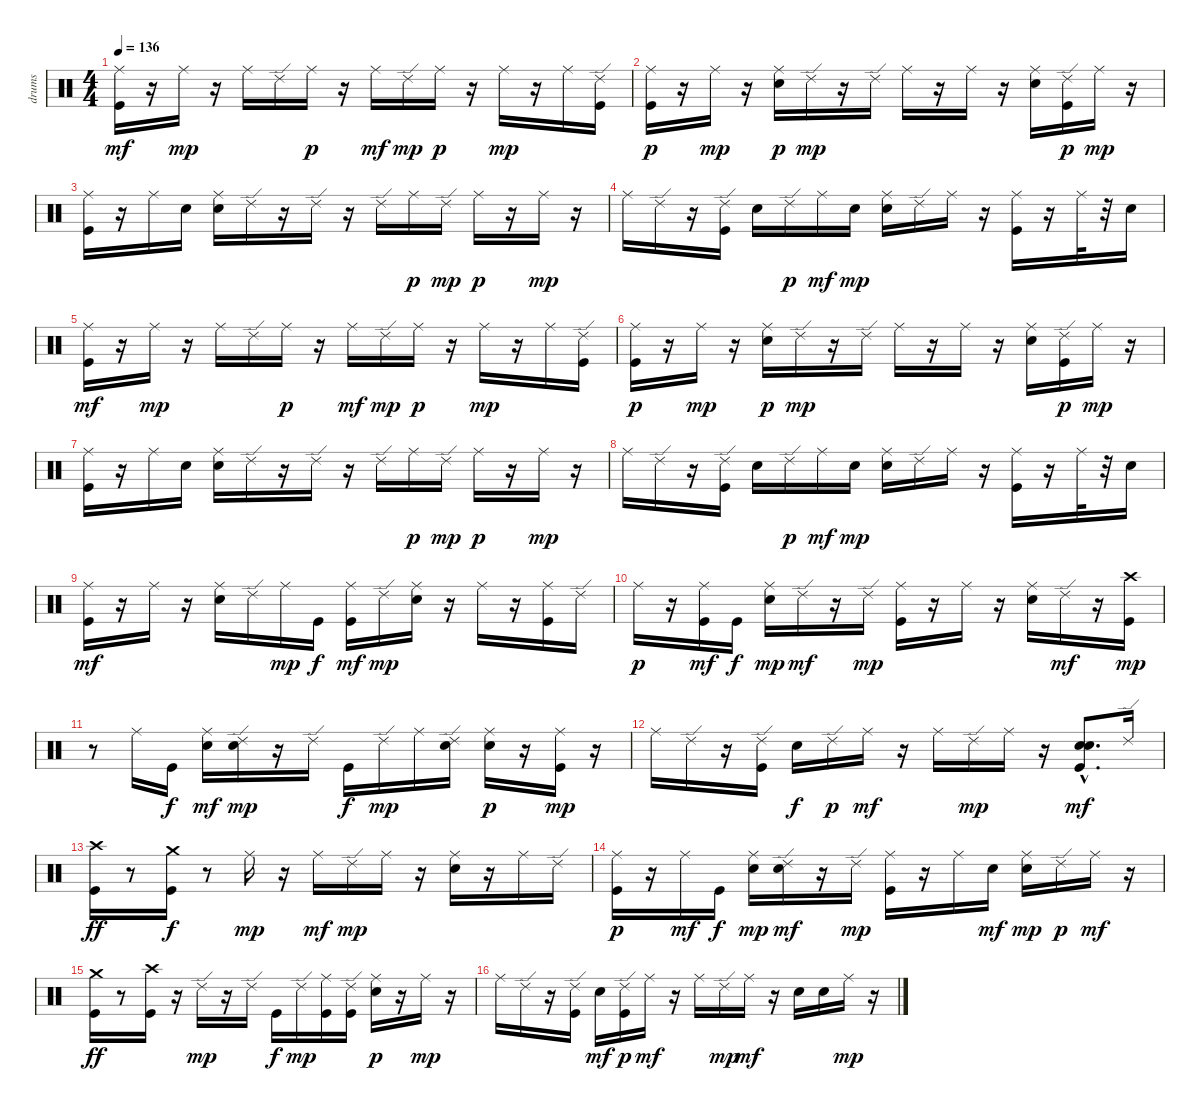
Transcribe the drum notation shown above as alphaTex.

\track ("drums   " "drums   ") {instrument percussion}
\staff {score}
\articulation defaults
\ts (4 4)
\tempo 136
\clef neutral
\ks c
("Kick (hit)" "Ride (middle)").16{dy mf} r.16 "Ride (middle)".16{dy mp} r.16 "Ride (middle)".16 "Ride (edge) 2".16 "Ride (middle)".16{dy p} r.16 "Ride (middle)".16{dy mf} "Ride (edge) 2".16{dy mp} "Ride (middle)".16{dy p} r.16 "Ride (middle)".16{dy mp} r.16 "Ride (middle)".16 ("Kick (hit)" "Ride (edge) 2").16 |
("Kick (hit)" "Ride (middle)").16{dy p} r.16 "Ride (middle)".16{dy mp} r.16 ("Electric Snare (hit)" "Ride (middle)").16{dy p} "Ride (edge) 2".16{dy mp} r.16 "Ride (edge) 2".16 "Ride (middle)".16 r.16 "Ride (middle)".16 r.16 ("Electric Snare (hit)" "Ride (middle)").16 ("Kick (hit)" "Ride (edge) 2").16{dy p} "Ride (middle)".16{dy mp} r.16 |
("Kick (hit)" "Ride (middle)").16 r.16 "Ride (middle)".16 "Electric Snare (hit)".16 ("Electric Snare (hit)" "Ride (middle)").16 "Ride (edge) 2".16 r.16 "Ride (edge) 2".16 r.16 "Ride (edge) 2".16 "Ride (middle)".16{dy p} "Ride (edge) 2".16{dy mp} "Ride (middle)".16{dy p} r.16 "Ride (middle)".16{dy mp} r.16 |
"Ride (middle)".16 "Ride (edge) 2".16 r.16 ("Kick (hit)" "Ride (edge) 2").16 "Electric Snare (hit)".16 "Ride (edge) 2".16{dy p} "Ride (middle)".16{dy mf} "Electric Snare (hit)".16{dy mp} ("Electric Snare (hit)" "Ride (middle)").16 "Ride (edge) 2".16 "Ride (middle)".16 r.16 ("Kick (hit)" "Ride (middle)").16 r.16 "Ride (middle)".32 r.32 "Electric Snare (hit)".16 |
("Kick (hit)" "Ride (middle)").16{dy mf} r.16 "Ride (middle)".16{dy mp} r.16 "Ride (middle)".16 "Ride (edge) 2".16 "Ride (middle)".16{dy p} r.16 "Ride (middle)".16{dy mf} "Ride (edge) 2".16{dy mp} "Ride (middle)".16{dy p} r.16 "Ride (middle)".16{dy mp} r.16 "Ride (middle)".16 ("Kick (hit)" "Ride (edge) 2").16 |
("Kick (hit)" "Ride (middle)").16{dy p} r.16 "Ride (middle)".16{dy mp} r.16 ("Electric Snare (hit)" "Ride (middle)").16{dy p} "Ride (edge) 2".16{dy mp} r.16 "Ride (edge) 2".16 "Ride (middle)".16 r.16 "Ride (middle)".16 r.16 ("Electric Snare (hit)" "Ride (middle)").16 ("Kick (hit)" "Ride (edge) 2").16{dy p} "Ride (middle)".16{dy mp} r.16 |
("Kick (hit)" "Ride (middle)").16 r.16 "Ride (middle)".16 "Electric Snare (hit)".16 ("Electric Snare (hit)" "Ride (middle)").16 "Ride (edge) 2".16 r.16 "Ride (edge) 2".16 r.16 "Ride (edge) 2".16 "Ride (middle)".16{dy p} "Ride (edge) 2".16{dy mp} "Ride (middle)".16{dy p} r.16 "Ride (middle)".16{dy mp} r.16 |
"Ride (middle)".16 "Ride (edge) 2".16 r.16 ("Kick (hit)" "Ride (edge) 2").16 "Electric Snare (hit)".16 "Ride (edge) 2".16{dy p} "Ride (middle)".16{dy mf} "Electric Snare (hit)".16{dy mp} ("Electric Snare (hit)" "Ride (middle)").16 "Ride (edge) 2".16 "Ride (middle)".16 r.16 ("Kick (hit)" "Ride (middle)").16 r.16 "Ride (middle)".32 r.32 "Electric Snare (hit)".16 |
("Kick (hit)" "Ride (middle)").16{dy mf} r.16 "Ride (middle)".16 r.16 ("Electric Snare (hit)" "Ride (middle)").16 "Ride (edge) 2".16 "Ride (middle)".16{dy mp} "Kick (hit)".16{dy f} ("Kick (hit)" "Ride (middle)").16{dy mf} "Ride (edge) 2".16{dy mp} ("Electric Snare (hit)" "Ride (middle)").16 r.16 "Ride (middle)".16 r.16 ("Kick (hit)" "Ride (middle)").16 "Ride (edge) 2".16 |
"Ride (middle)".16{dy p} r.16 ("Kick (hit)" "Ride (middle)").16{dy mf} "Kick (hit)".16{dy f} ("Electric Snare (hit)" "Ride (middle)").16{dy mp} "Ride (edge) 2".16{dy mf} r.16 "Ride (edge) 2".16{dy mp} ("Kick (hit)" "Ride (middle)").16 r.16 "Ride (middle)".16 r.16 ("Electric Snare (hit)" "Ride (middle)").16 "Ride (edge) 2".16{dy mf} r.16 ("Crash high (hit)" "Kick (hit)").16{dy mp} |
r.8 "Ride (middle)".16 "Kick (hit)".16{dy f} ("Electric Snare (hit)" "Ride (middle)").16{dy mf} ("Electric Snare (hit)" "Ride (edge) 2").16{dy mp} r.16 "Ride (edge) 2".16 "Kick (hit)".16{dy f} "Ride (edge) 2".16{dy mp} "Ride (middle)".16 ("Electric Snare (hit)" "Ride (edge) 2").16 ("Electric Snare (hit)" "Ride (middle)").16{dy p} r.16 ("Kick (hit)" "Ride (middle)").16{dy mp} r.16 |
"Ride (middle)".16 "Ride (edge) 2".16 r.16 ("Kick (hit)" "Ride (edge) 2").16 "Electric Snare (hit)".16{dy f} "Ride (edge) 2".16{dy p} "Ride (middle)".16{dy mf} r.16 "Ride (middle)".16 "Ride (edge) 2".16{dy mp} "Ride (middle)".16 r.16 ("Electric Snare (hit)"{hac} "Kick (hit)" "Electric Snare (hit)").8{d dy mf} "Ride (edge) 2".16 |
("Kick (hit)" "Crash high (hit)").16{dy ff} r.8 ("Kick (hit)" "Crash medium (hit)").16{dy f} r.8 "Ride (middle)".16{dy mp} r.16 "Ride (middle)".16{dy mf} "Ride (edge) 2".16{dy mp} "Ride (middle)".16 r.16 ("Electric Snare (hit)" "Ride (middle)").16 r.16 "Ride (middle)".16 "Ride (edge) 2".16 |
("Kick (hit)" "Ride (middle)").16{dy p} r.16 "Ride (middle)".16{dy mf} "Kick (hit)".16{dy f} ("Electric Snare (hit)" "Ride (middle)").16{dy mp} ("Electric Snare (hit)" "Ride (edge) 2").16{dy mf} r.16 "Ride (edge) 2".16{dy mp} ("Kick (hit)" "Ride (middle)").16 r.16 "Ride (middle)".16 "Electric Snare (hit)".16{dy mf} ("Electric Snare (hit)" "Ride (middle)").16{dy mp} "Ride (edge) 2".16{dy p} "Ride (middle)".16{dy mf} r.16 |
("Kick (hit)" "Crash medium (hit)").16{dy ff} r.8 ("Kick (hit)" "Crash high (hit)").16 r.16 "Ride (edge) 2".16{dy mp} r.16 "Ride (edge) 2".16 "Kick (hit)".16{dy f} "Ride (edge) 2".16{dy mp} ("Kick (hit)" "Ride (middle)").16 ("Kick (hit)" "Ride (edge) 2").16 ("Electric Snare (hit)" "Ride (middle)").16{dy p} r.16 "Ride (middle)".16{dy mp} r.16 |
"Ride (middle)".16 "Ride (edge) 2".16 r.16 ("Kick (hit)" "Ride (edge) 2").16 "Electric Snare (hit)".16{dy mf} ("Kick (hit)" "Ride (edge) 2").16{dy p} "Ride (middle)".16{dy mf} r.16 "Ride (middle)".16 "Ride (edge) 2".16{dy mp} "Ride (middle)".16{dy mf} r.16 "Electric Snare (hit)".16 "Electric Snare (hit)".16 "Ride (middle)".16{dy mp} r.16
